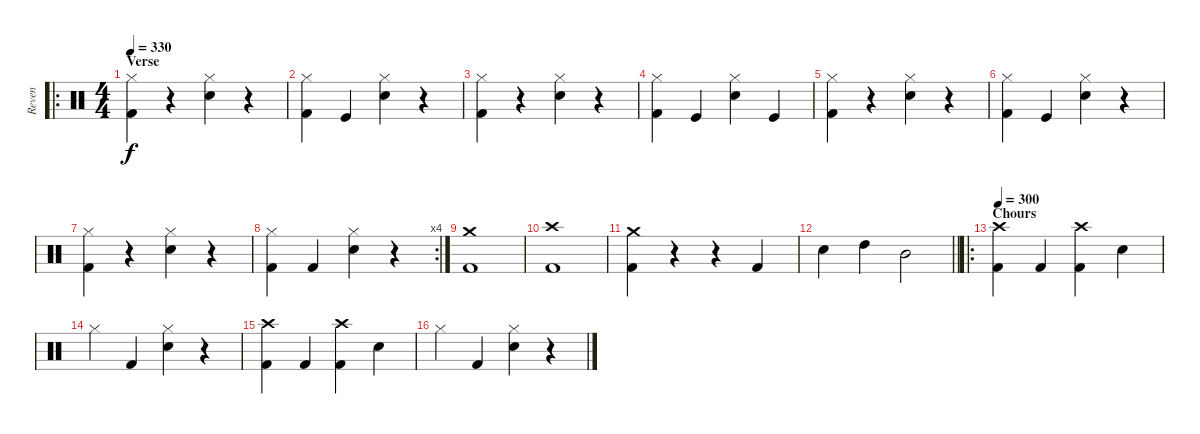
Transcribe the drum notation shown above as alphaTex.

\track ("Reven" "Reven") {instrument percussion}
\staff {score}
\articulation defaults
\ro
\ts (4 4)
\section ("" "Verse")
\tempo 330
\clef neutral
\ks c
("Hi-Hat (closed)" "Kick (hit) 2").4{dy f} r.4 ("Hi-Hat (closed)" "Electric Snare (hit)").4 r.4 |
("Hi-Hat (closed)" "Kick (hit) 2").4 "Kick (hit)".4 ("Hi-Hat (closed)" "Electric Snare (hit)").4 r.4 |
("Hi-Hat (closed)" "Kick (hit) 2").4 r.4 ("Hi-Hat (closed)" "Electric Snare (hit)").4 r.4 |
("Hi-Hat (closed)" "Kick (hit) 2").4 "Kick (hit)".4 ("Hi-Hat (closed)" "Electric Snare (hit)").4 "Kick (hit)".4 |
("Hi-Hat (closed)" "Kick (hit) 2").4 r.4 ("Hi-Hat (closed)" "Electric Snare (hit)").4 r.4 |
("Hi-Hat (closed)" "Kick (hit) 2").4 "Kick (hit)".4 ("Hi-Hat (closed)" "Electric Snare (hit)").4 r.4 |
("Hi-Hat (closed)" "Kick (hit) 2").4 r.4 ("Hi-Hat (closed)" "Electric Snare (hit)").4 r.4 |
\rc 4
("Hi-Hat (closed)" "Kick (hit) 2").4 "Kick (hit) 2".4 ("Hi-Hat (closed)" "Electric Snare (hit)").4 r.4 |
("Crash medium (hit)" "Kick (hit) 2").1 |
("Crash high (hit)" "Kick (hit) 2").1 |
("Crash medium (hit)" "Kick (hit) 2").4 r.4 r.4 "Kick (hit) 2".4 |
\barLineRight lightlight "Electric Snare (hit)".4 "High Tom (hit)".4 "Mid Tom (hit)".2
|
\ro
\section ("" "Chours")
\tempo 300
("Crash high (hit)" "Kick (hit) 2").4 "Kick (hit) 2".4 ("Crash high (hit)" "Kick (hit) 2").4 "Electric Snare (hit)".4 |
"Hi-Hat (closed)".4 "Kick (hit) 2".4 ("Hi-Hat (closed)" "Electric Snare (hit)").4 r.4 |
("Crash high (hit)" "Kick (hit) 2").4 "Kick (hit) 2".4 ("Crash high (hit)" "Kick (hit) 2").4 "Electric Snare (hit)".4 |
"Hi-Hat (closed)".4 "Kick (hit) 2".4 ("Hi-Hat (closed)" "Electric Snare (hit)").4 r.4
